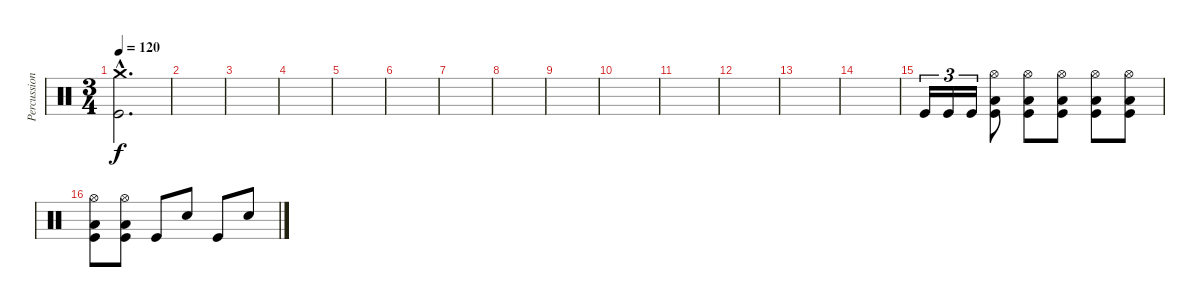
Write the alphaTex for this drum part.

\track ("Percussion" "Percussion") {instrument percussion}
\staff {score}
\articulation defaults
\ts (3 4)
\tempo 120
\clef neutral
\ks c
("Crash medium (hit)"{hac} "Kick (hit)"{hac}).2{d dy f} |
|
|
|
|
|
|
|
|
|
|
|
|
|
"Kick (hit)".16{tu (3 2)} "Kick (hit)".16{tu (3 2)} "Kick (hit)".16{tu (3 2)} ("Low Floor Tom (hit)" "Hi-Hat (open)" "Kick (hit)").8 ("Low Floor Tom (hit)" "Hi-Hat (open)" "Kick (hit)").8 ("Low Floor Tom (hit)" "Hi-Hat (open)" "Kick (hit)").8 ("Low Floor Tom (hit)" "Hi-Hat (open)" "Kick (hit)").8 ("Low Floor Tom (hit)" "Hi-Hat (open)" "Kick (hit)").8 |
("Low Floor Tom (hit)" "Hi-Hat (open)" "Kick (hit)").8 ("Low Floor Tom (hit)" "Hi-Hat (open)" "Kick (hit)").8 "Kick (hit)".8 "Electric Snare (hit)".8 "Kick (hit)".8 "Electric Snare (hit)".8
